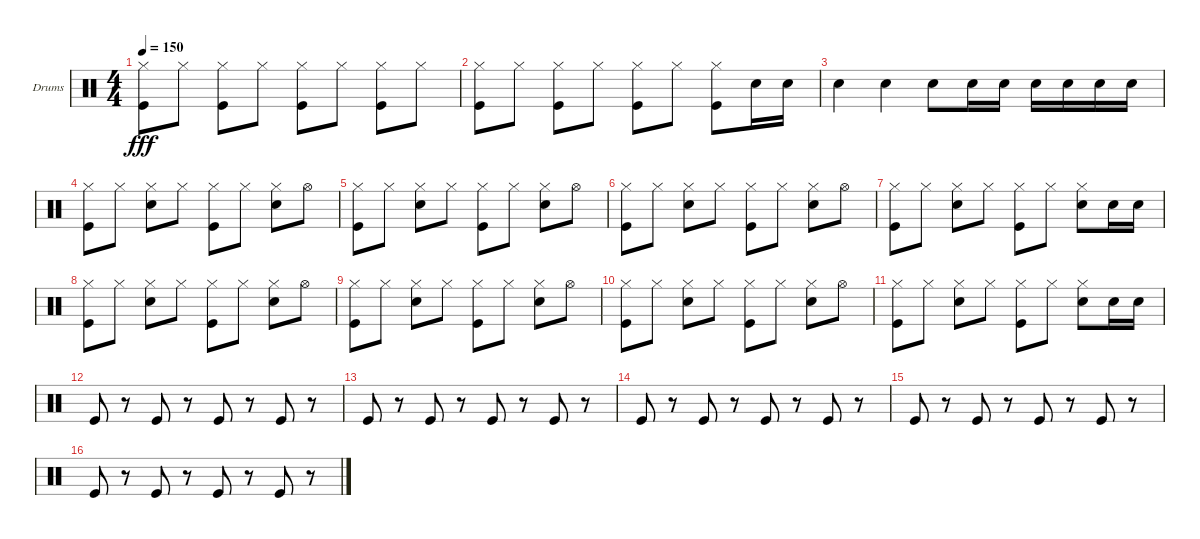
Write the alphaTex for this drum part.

\bracketExtendMode groupsimilarinstruments
\firstSystemTrackNameOrientation horizontal
\otherSystemsTrackNameOrientation horizontal
\track ("Jamie" "Drums") {instrument percussion}
\staff {score}
\articulation defaults
\ts (4 4)
\tempo 150
\clef neutral
\ks c
("Kick (hit)" "Hi-Hat (closed)").8{dy fff} "Hi-Hat (closed)".8 ("Kick (hit)" "Hi-Hat (closed)").8 "Hi-Hat (closed)".8 ("Kick (hit)" "Hi-Hat (closed)").8 "Hi-Hat (closed)".8 ("Kick (hit)" "Hi-Hat (closed)").8 "Hi-Hat (closed)".8 |
("Kick (hit)" "Hi-Hat (closed)").8 "Hi-Hat (closed)".8 ("Kick (hit)" "Hi-Hat (closed)").8 "Hi-Hat (closed)".8 ("Kick (hit)" "Hi-Hat (closed)").8 "Hi-Hat (closed)".8 ("Kick (hit)" "Hi-Hat (closed)").8 "Snare (hit) 2".16 "Snare (hit) 2".16 |
"Snare (hit) 2".4 "Snare (hit) 2".4 "Snare (hit) 2".8 "Snare (hit) 2".16 "Snare (hit) 2".16 "Snare (hit) 2".16 "Snare (hit) 2".16 "Snare (hit) 2".16 "Snare (hit) 2".16 |
("Kick (hit)" "Hi-Hat (closed)").8 "Hi-Hat (closed)".8 ("Hi-Hat (closed)" "Snare (hit) 2").8 "Hi-Hat (closed)".8 ("Kick (hit)" "Hi-Hat (closed)").8 "Hi-Hat (closed)".8 ("Hi-Hat (closed)" "Snare (hit) 2").8 "Hi-Hat (open)".8 |
("Kick (hit)" "Hi-Hat (closed)").8 "Hi-Hat (closed)".8 ("Hi-Hat (closed)" "Snare (hit) 2").8 "Hi-Hat (closed)".8 ("Kick (hit)" "Hi-Hat (closed)").8 "Hi-Hat (closed)".8 ("Hi-Hat (closed)" "Snare (hit) 2").8 "Hi-Hat (open)".8 |
("Kick (hit)" "Hi-Hat (closed)").8 "Hi-Hat (closed)".8 ("Hi-Hat (closed)" "Snare (hit) 2").8 "Hi-Hat (closed)".8 ("Kick (hit)" "Hi-Hat (closed)").8 "Hi-Hat (closed)".8 ("Hi-Hat (closed)" "Snare (hit) 2").8 "Hi-Hat (open)".8 |
("Kick (hit)" "Hi-Hat (closed)").8 "Hi-Hat (closed)".8 ("Hi-Hat (closed)" "Snare (hit) 2").8 "Hi-Hat (closed)".8 ("Kick (hit)" "Hi-Hat (closed)").8 "Hi-Hat (closed)".8 ("Hi-Hat (closed)" "Snare (hit) 2").8 "Snare (hit) 2".16 "Snare (hit) 2".16 |
("Kick (hit)" "Hi-Hat (closed)").8 "Hi-Hat (closed)".8 ("Hi-Hat (closed)" "Snare (hit) 2").8 "Hi-Hat (closed)".8 ("Kick (hit)" "Hi-Hat (closed)").8 "Hi-Hat (closed)".8 ("Hi-Hat (closed)" "Snare (hit) 2").8 "Hi-Hat (open)".8 |
("Kick (hit)" "Hi-Hat (closed)").8 "Hi-Hat (closed)".8 ("Hi-Hat (closed)" "Snare (hit) 2").8 "Hi-Hat (closed)".8 ("Kick (hit)" "Hi-Hat (closed)").8 "Hi-Hat (closed)".8 ("Hi-Hat (closed)" "Snare (hit) 2").8 "Hi-Hat (open)".8 |
("Kick (hit)" "Hi-Hat (closed)").8 "Hi-Hat (closed)".8 ("Hi-Hat (closed)" "Snare (hit) 2").8 "Hi-Hat (closed)".8 ("Kick (hit)" "Hi-Hat (closed)").8 "Hi-Hat (closed)".8 ("Hi-Hat (closed)" "Snare (hit) 2").8 "Hi-Hat (open)".8 |
("Kick (hit)" "Hi-Hat (closed)").8 "Hi-Hat (closed)".8 ("Hi-Hat (closed)" "Snare (hit) 2").8 "Hi-Hat (closed)".8 ("Kick (hit)" "Hi-Hat (closed)").8 "Hi-Hat (closed)".8 ("Hi-Hat (closed)" "Snare (hit) 2").8 "Snare (hit) 2".16 "Snare (hit) 2".16 |
"Kick (hit)".8 r.8 "Kick (hit)".8 r.8 "Kick (hit)".8 r.8 "Kick (hit)".8 r.8 |
"Kick (hit)".8 r.8 "Kick (hit)".8 r.8 "Kick (hit)".8 r.8 "Kick (hit)".8 r.8 |
"Kick (hit)".8 r.8 "Kick (hit)".8 r.8 "Kick (hit)".8 r.8 "Kick (hit)".8 r.8 |
"Kick (hit)".8 r.8 "Kick (hit)".8 r.8 "Kick (hit)".8 r.8 "Kick (hit)".8 r.8 |
"Kick (hit)".8 r.8 "Kick (hit)".8 r.8 "Kick (hit)".8 r.8 "Kick (hit)".8 r.8
